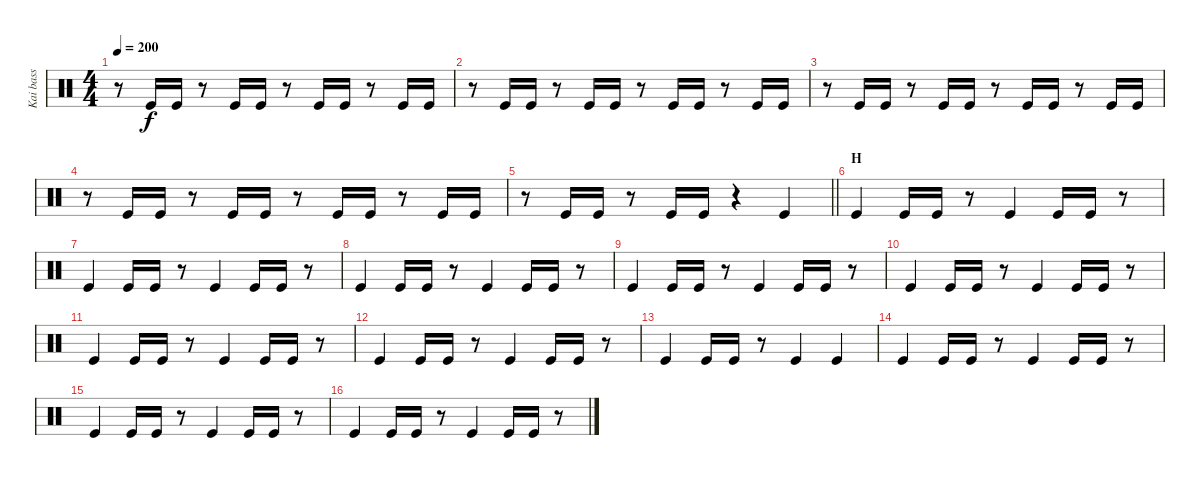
\track ("Kai bass" "Kai bass") {instrument percussion}
\staff {score}
\articulation defaults
\ts (4 4)
\tempo 200
\clef neutral
\ks c
r.8{dy f} "Kick (hit)".16 "Kick (hit)".16 r.8 "Kick (hit)".16 "Kick (hit)".16 r.8 "Kick (hit)".16 "Kick (hit)".16 r.8 "Kick (hit)".16 "Kick (hit)".16 |
r.8 "Kick (hit)".16 "Kick (hit)".16 r.8 "Kick (hit)".16 "Kick (hit)".16 r.8 "Kick (hit)".16 "Kick (hit)".16 r.8 "Kick (hit)".16 "Kick (hit)".16 |
r.8 "Kick (hit)".16 "Kick (hit)".16 r.8 "Kick (hit)".16 "Kick (hit)".16 r.8 "Kick (hit)".16 "Kick (hit)".16 r.8 "Kick (hit)".16 "Kick (hit)".16 |
r.8 "Kick (hit)".16 "Kick (hit)".16 r.8 "Kick (hit)".16 "Kick (hit)".16 r.8 "Kick (hit)".16 "Kick (hit)".16 r.8 "Kick (hit)".16 "Kick (hit)".16 |
\barLineRight lightlight
r.8 "Kick (hit)".16 "Kick (hit)".16 r.8 "Kick (hit)".16 "Kick (hit)".16 r.4 "Kick (hit)".4 |
\section ("" "H")
"Kick (hit)".4 "Kick (hit)".16 "Kick (hit)".16 r.8 "Kick (hit)".4 "Kick (hit)".16 "Kick (hit)".16 r.8 |
"Kick (hit)".4 "Kick (hit)".16 "Kick (hit)".16 r.8 "Kick (hit)".4 "Kick (hit)".16 "Kick (hit)".16 r.8 |
"Kick (hit)".4 "Kick (hit)".16 "Kick (hit)".16 r.8 "Kick (hit)".4 "Kick (hit)".16 "Kick (hit)".16 r.8 |
"Kick (hit)".4 "Kick (hit)".16 "Kick (hit)".16 r.8 "Kick (hit)".4 "Kick (hit)".16 "Kick (hit)".16 r.8 |
"Kick (hit)".4 "Kick (hit)".16 "Kick (hit)".16 r.8 "Kick (hit)".4 "Kick (hit)".16 "Kick (hit)".16 r.8 |
"Kick (hit)".4 "Kick (hit)".16 "Kick (hit)".16 r.8 "Kick (hit)".4 "Kick (hit)".16 "Kick (hit)".16 r.8 |
"Kick (hit)".4 "Kick (hit)".16 "Kick (hit)".16 r.8 "Kick (hit)".4 "Kick (hit)".16 "Kick (hit)".16 r.8 |
"Kick (hit)".4 "Kick (hit)".16 "Kick (hit)".16 r.8 "Kick (hit)".4 "Kick (hit)".4 |
"Kick (hit)".4 "Kick (hit)".16 "Kick (hit)".16 r.8 "Kick (hit)".4 "Kick (hit)".16 "Kick (hit)".16 r.8 |
"Kick (hit)".4 "Kick (hit)".16 "Kick (hit)".16 r.8 "Kick (hit)".4 "Kick (hit)".16 "Kick (hit)".16 r.8 |
"Kick (hit)".4 "Kick (hit)".16 "Kick (hit)".16 r.8 "Kick (hit)".4 "Kick (hit)".16 "Kick (hit)".16 r.8
